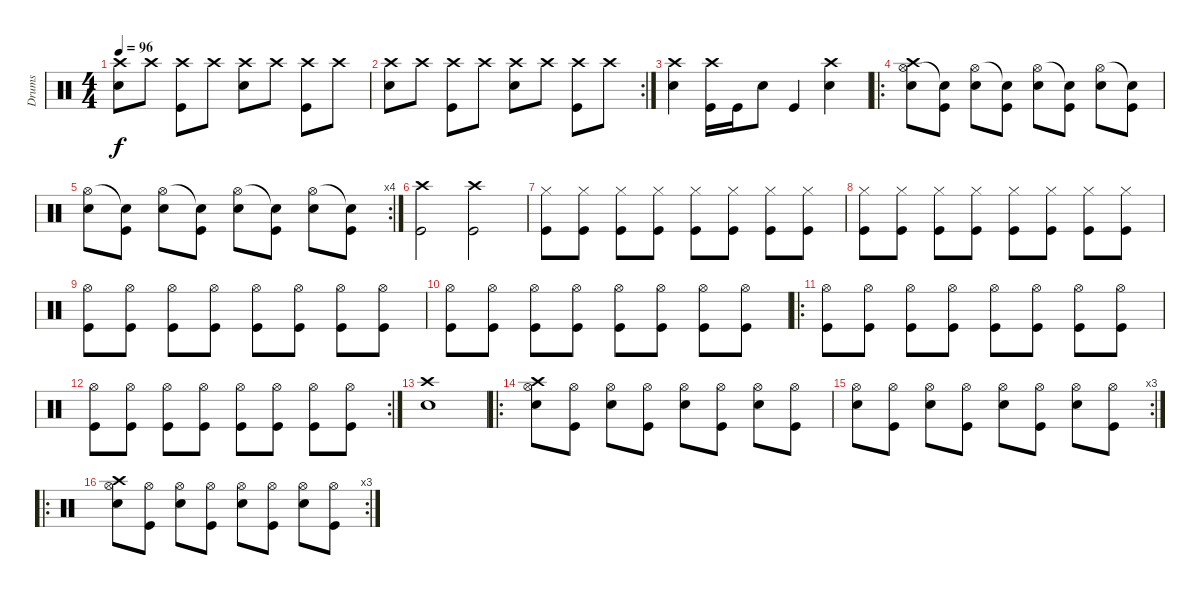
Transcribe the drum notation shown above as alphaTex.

\track ("Drums" "Drums") {instrument percussion}
\staff {score}
\articulation defaults
\ts (4 4)
\tempo 96
\clef neutral
\ks c
("Crash high (hit)" "Electric Snare (hit)").8{dy f} "Crash high (hit)".8 ("Crash high (hit)" "Kick (hit)").8 "Crash high (hit)".8 ("Crash high (hit)" "Electric Snare (hit)").8 "Crash high (hit)".8 ("Crash high (hit)" "Kick (hit)").8 "Crash high (hit)".8 |
\rc 2
("Crash high (hit)" "Electric Snare (hit)").8 "Crash high (hit)".8 ("Crash high (hit)" "Kick (hit)").8 "Crash high (hit)".8 ("Crash high (hit)" "Electric Snare (hit)").8 "Crash high (hit)".8 ("Crash high (hit)" "Kick (hit)").8 "Crash high (hit)".8 |
("Crash high (hit)" "Electric Snare (hit)").4 ("Crash high (hit)" "Kick (hit)").16 "Kick (hit)".16 "Electric Snare (hit)".8 "Kick (hit)".4 ("Crash high (hit)" "Electric Snare (hit)").4 |
\ro
("Hi-Hat (open)" "Crash high (hit)" "Electric Snare (hit)").8 ("Snare (hit)"{t} "Kick (hit)").8 ("Hi-Hat (open)" "Electric Snare (hit)").8 ("Snare (hit)"{t} "Kick (hit)").8 ("Hi-Hat (open)" "Electric Snare (hit)").8 ("Snare (hit)"{t} "Kick (hit)").8 ("Hi-Hat (open)" "Electric Snare (hit)").8 ("Snare (hit)"{t} "Kick (hit)").8 |
\rc 4
("Hi-Hat (open)" "Electric Snare (hit)").8 ("Snare (hit)"{t} "Kick (hit)").8 ("Hi-Hat (open)" "Electric Snare (hit)").8 ("Snare (hit)"{t} "Kick (hit)").8 ("Hi-Hat (open)" "Electric Snare (hit)").8 ("Snare (hit)"{t} "Kick (hit)").8 ("Hi-Hat (open)" "Electric Snare (hit)").8 ("Snare (hit)"{t} "Kick (hit)").8 |
("Crash high (hit)" "Kick (hit)").2 ("Crash high (hit)" "Kick (hit)").2 |
("Hi-Hat (closed)" "Kick (hit)").8 ("Hi-Hat (closed)" "Kick (hit)").8 ("Hi-Hat (closed)" "Kick (hit)").8 ("Hi-Hat (closed)" "Kick (hit)").8 ("Hi-Hat (closed)" "Kick (hit)").8 ("Hi-Hat (closed)" "Kick (hit)").8 ("Hi-Hat (closed)" "Kick (hit)").8 ("Hi-Hat (closed)" "Kick (hit)").8 |
("Hi-Hat (closed)" "Kick (hit)").8 ("Hi-Hat (closed)" "Kick (hit)").8 ("Hi-Hat (closed)" "Kick (hit)").8 ("Hi-Hat (closed)" "Kick (hit)").8 ("Hi-Hat (closed)" "Kick (hit)").8 ("Hi-Hat (closed)" "Kick (hit)").8 ("Hi-Hat (closed)" "Kick (hit)").8 ("Hi-Hat (closed)" "Kick (hit)").8 |
("Hi-Hat (open)" "Kick (hit)").8 ("Hi-Hat (open)" "Kick (hit)").8 ("Hi-Hat (open)" "Kick (hit)").8 ("Hi-Hat (open)" "Kick (hit)").8 ("Hi-Hat (open)" "Kick (hit)").8 ("Hi-Hat (open)" "Kick (hit)").8 ("Hi-Hat (open)" "Kick (hit)").8 ("Hi-Hat (open)" "Kick (hit)").8 |
("Hi-Hat (open)" "Kick (hit)").8 ("Hi-Hat (open)" "Kick (hit)").8 ("Hi-Hat (open)" "Kick (hit)").8 ("Hi-Hat (open)" "Kick (hit)").8 ("Hi-Hat (open)" "Kick (hit)").8 ("Hi-Hat (open)" "Kick (hit)").8 ("Hi-Hat (open)" "Kick (hit)").8 ("Hi-Hat (open)" "Kick (hit)").8 |
\ro
("Hi-Hat (open)" "Kick (hit)").8 ("Hi-Hat (open)" "Kick (hit)").8 ("Hi-Hat (open)" "Kick (hit)").8 ("Hi-Hat (open)" "Kick (hit)").8 ("Hi-Hat (open)" "Kick (hit)").8 ("Hi-Hat (open)" "Kick (hit)").8 ("Hi-Hat (open)" "Kick (hit)").8 ("Hi-Hat (open)" "Kick (hit)").8 |
\rc 2
("Hi-Hat (open)" "Kick (hit)").8 ("Hi-Hat (open)" "Kick (hit)").8 ("Hi-Hat (open)" "Kick (hit)").8 ("Hi-Hat (open)" "Kick (hit)").8 ("Hi-Hat (open)" "Kick (hit)").8 ("Hi-Hat (open)" "Kick (hit)").8 ("Hi-Hat (open)" "Kick (hit)").8 ("Hi-Hat (open)" "Kick (hit)").8 |
("Crash high (hit)" "Electric Snare (hit)").1 |
\ro
("Hi-Hat (open)" "Crash high (hit)" "Electric Snare (hit)").8 ("Hi-Hat (open)" "Kick (hit)").8 ("Hi-Hat (open)" "Electric Snare (hit)").8 ("Hi-Hat (open)" "Kick (hit)").8 ("Hi-Hat (open)" "Electric Snare (hit)").8 ("Hi-Hat (open)" "Kick (hit)").8 ("Hi-Hat (open)" "Electric Snare (hit)").8 ("Hi-Hat (open)" "Kick (hit)").8 |
\rc 3
("Hi-Hat (open)" "Electric Snare (hit)").8 ("Hi-Hat (open)" "Kick (hit)").8 ("Hi-Hat (open)" "Electric Snare (hit)").8 ("Hi-Hat (open)" "Kick (hit)").8 ("Hi-Hat (open)" "Electric Snare (hit)").8 ("Hi-Hat (open)" "Kick (hit)").8 ("Hi-Hat (open)" "Electric Snare (hit)").8 ("Hi-Hat (open)" "Kick (hit)").8 |
\ro
\rc 3
("Hi-Hat (open)" "Crash high (hit)" "Electric Snare (hit)").8 ("Hi-Hat (open)" "Kick (hit)").8 ("Hi-Hat (open)" "Electric Snare (hit)").8 ("Hi-Hat (open)" "Kick (hit)").8 ("Hi-Hat (open)" "Electric Snare (hit)").8 ("Hi-Hat (open)" "Kick (hit)").8 ("Hi-Hat (open)" "Electric Snare (hit)").8 ("Hi-Hat (open)" "Kick (hit)").8
